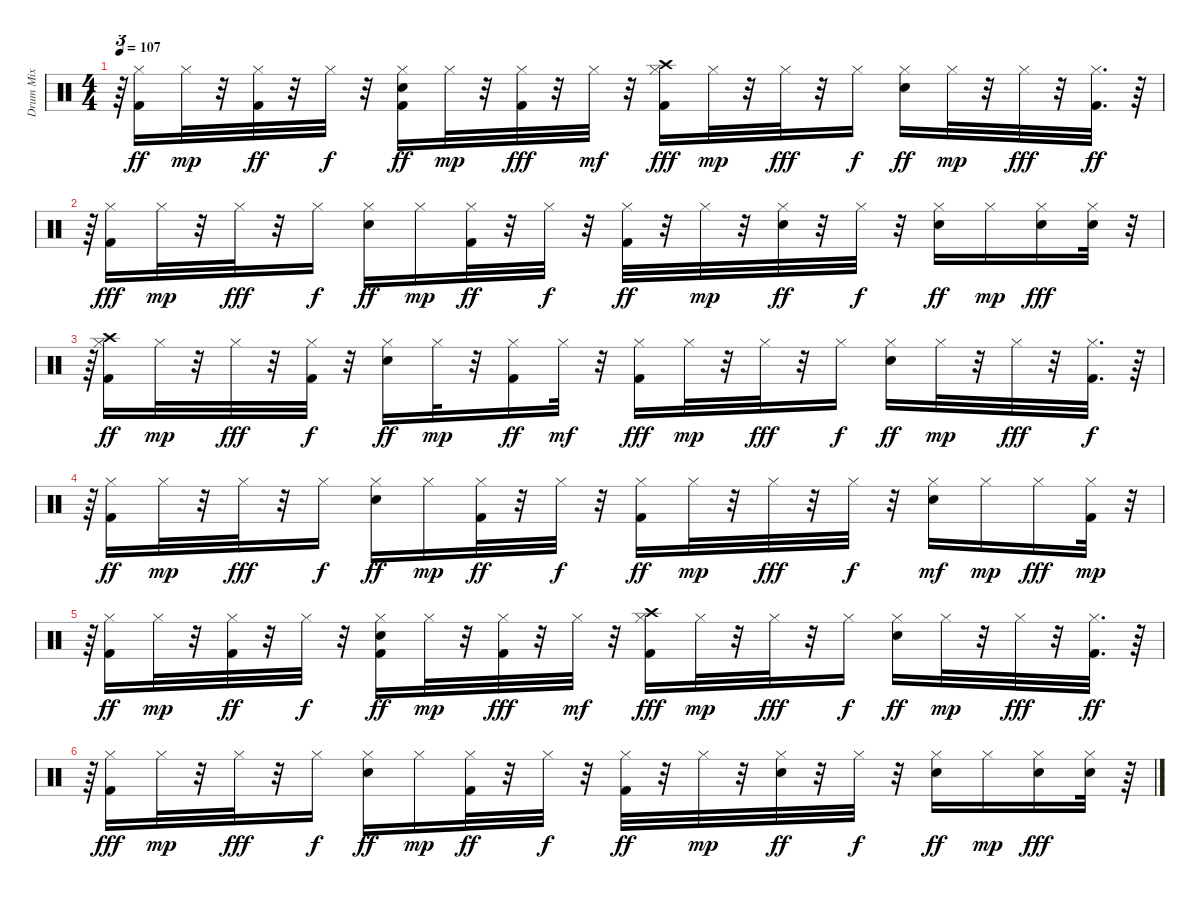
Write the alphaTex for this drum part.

\track ("Drum Mix" "Drum Mix") {instrument percussion}
\staff {score}
\articulation defaults
\ts (4 4)
\tempo 107
\clef neutral
\ks c
r.64{tu (3 2) dy mp} ("Hi-Hat (closed)" "Kick (hit) 2").16{dy ff} "Hi-Hat (closed)".32{dy mp} r.32 ("Hi-Hat (closed)" "Kick (hit) 2").32{dy ff} r.32 "Hi-Hat (closed)".32{dy f} r.32 ("Hi-Hat (closed)" "Snare (hit) 2" "Kick (hit) 2").16{dy ff} "Hi-Hat (closed)".32{dy mp} r.32 ("Hi-Hat (closed)" "Kick (hit) 2").32{dy fff} r.32 "Hi-Hat (closed)".32{dy mf} r.32 ("Hi-Hat (closed)" "Kick (hit) 2" "Crash high (hit)").16{dy fff} "Hi-Hat (closed)".32{dy mp} r.32 "Hi-Hat (closed)".32{dy fff} r.32 "Hi-Hat (closed)".16{dy f} ("Hi-Hat (closed)" "Snare (hit) 2").16{dy ff} "Hi-Hat (closed)".32{dy mp} r.32 "Hi-Hat (closed)".32{dy fff} r.32 ("Hi-Hat (closed)" "Kick (hit) 2").32{d dy ff} r.64 |
r.64{tu (3 2)} ("Hi-Hat (closed)" "Kick (hit) 2").16{dy fff} "Hi-Hat (closed)".32{dy mp} r.32 "Hi-Hat (closed)".32{dy fff} r.32 "Hi-Hat (closed)".16{dy f} ("Hi-Hat (closed)" "Snare (hit) 2").16{dy ff} "Hi-Hat (closed)".16{dy mp} ("Hi-Hat (closed)" "Kick (hit) 2").32{dy ff} r.32 "Hi-Hat (closed)".32{dy f} r.32 ("Hi-Hat (closed)" "Kick (hit) 2").32{dy ff} r.32 "Hi-Hat (closed)".32{dy mp} r.32 ("Hi-Hat (closed)" "Snare (hit) 2").32{dy ff} r.32 "Hi-Hat (closed)".32{dy f} r.32 ("Hi-Hat (closed)" "Snare (hit) 2").16{dy ff} "Hi-Hat (closed)".16{dy mp} ("Hi-Hat (closed)" "Snare (hit) 2").16{dy fff} ("Hi-Hat (closed)" "Snare (hit) 2").32 r.32{tu (3 2)} |
r.64{tu (3 2)} ("Hi-Hat (closed)" "Crash high (hit)" "Kick (hit) 2").16{dy ff} "Hi-Hat (closed)".32{dy mp} r.32 "Hi-Hat (closed)".32{dy fff} r.32 ("Hi-Hat (closed)" "Kick (hit) 2").32{dy f} r.32 ("Hi-Hat (closed)" "Snare (hit) 2").16{dy ff} "Hi-Hat (closed)".32{dy mp} r.32 ("Hi-Hat (closed)" "Kick (hit) 2").16{dy ff} "Hi-Hat (closed)".32{dy mf} r.32 ("Hi-Hat (closed)" "Kick (hit) 2").16{dy fff} "Hi-Hat (closed)".32{dy mp} r.32 "Hi-Hat (closed)".32{dy fff} r.32 "Hi-Hat (closed)".16{dy f} ("Hi-Hat (closed)" "Snare (hit) 2").16{dy ff} "Hi-Hat (closed)".32{dy mp} r.32 "Hi-Hat (closed)".32{dy fff} r.32 ("Hi-Hat (closed)" "Kick (hit) 2").32{d dy f} r.64 |
r.64{tu (3 2)} ("Hi-Hat (closed)" "Kick (hit) 2").16{dy ff} "Hi-Hat (closed)".32{dy mp} r.32 "Hi-Hat (closed)".32{dy fff} r.32 "Hi-Hat (closed)".16{dy f} ("Hi-Hat (closed)" "Snare (hit) 2").16{dy ff} "Hi-Hat (closed)".16{dy mp} ("Hi-Hat (closed)" "Kick (hit) 2").32{dy ff} r.32 "Hi-Hat (closed)".32{dy f} r.32 ("Hi-Hat (closed)" "Kick (hit) 2").16{dy ff} "Hi-Hat (closed)".32{dy mp} r.32 "Hi-Hat (closed)".32{dy fff} r.32 "Hi-Hat (closed)".32{dy f} r.32 ("Hi-Hat (closed)" "Snare (hit) 2").16{dy mf} "Hi-Hat (closed)".16{dy mp} "Hi-Hat (closed)".16{dy fff} ("Hi-Hat (closed)" "Kick (hit) 2").32{dy mp} r.32{tu (3 2)} |
r.64{tu (3 2)} ("Hi-Hat (closed)" "Kick (hit) 2").16{dy ff} "Hi-Hat (closed)".32{dy mp} r.32 ("Hi-Hat (closed)" "Kick (hit) 2").32{dy ff} r.32 "Hi-Hat (closed)".32{dy f} r.32 ("Hi-Hat (closed)" "Snare (hit) 2" "Kick (hit) 2").16{dy ff} "Hi-Hat (closed)".32{dy mp} r.32 ("Hi-Hat (closed)" "Kick (hit) 2").32{dy fff} r.32 "Hi-Hat (closed)".32{dy mf} r.32 ("Hi-Hat (closed)" "Kick (hit) 2" "Crash high (hit)").16{dy fff} "Hi-Hat (closed)".32{dy mp} r.32 "Hi-Hat (closed)".32{dy fff} r.32 "Hi-Hat (closed)".16{dy f} ("Hi-Hat (closed)" "Snare (hit) 2").16{dy ff} "Hi-Hat (closed)".32{dy mp} r.32 "Hi-Hat (closed)".32{dy fff} r.32 ("Hi-Hat (closed)" "Kick (hit) 2").32{d dy ff} r.64 |
r.64{tu (3 2)} ("Hi-Hat (closed)" "Kick (hit) 2").16{dy fff} "Hi-Hat (closed)".32{dy mp} r.32 "Hi-Hat (closed)".32{dy fff} r.32 "Hi-Hat (closed)".16{dy f} ("Hi-Hat (closed)" "Snare (hit) 2").16{dy ff} "Hi-Hat (closed)".16{dy mp} ("Hi-Hat (closed)" "Kick (hit) 2").32{dy ff} r.32 "Hi-Hat (closed)".32{dy f} r.32 ("Hi-Hat (closed)" "Kick (hit) 2").32{dy ff} r.32 "Hi-Hat (closed)".32{dy mp} r.32 ("Hi-Hat (closed)" "Snare (hit) 2").32{dy ff} r.32 "Hi-Hat (closed)".32{dy f} r.32 ("Hi-Hat (closed)" "Snare (hit) 2").16{dy ff} "Hi-Hat (closed)".16{dy mp} ("Hi-Hat (closed)" "Snare (hit) 2").16{dy fff} ("Hi-Hat (closed)" "Snare (hit) 2").32 r.64
